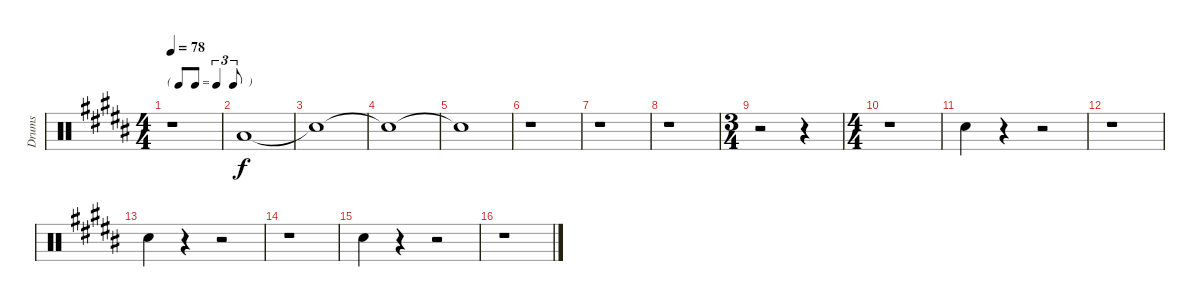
\track ("Drums" "Drums") {instrument percussion}
\staff {score}
\articulation defaults
\ts (4 4)
\tf triplet8th
\tempo 78
\clef neutral
\ks b
r.1{dy f} |
"Low Tom (hit)".1 |
"Snare (hit)"{t}.1 |
"Snare (hit)"{t}.1 |
"Snare (hit)"{t}.1 |
r.1 |
r.1 |
r.1 |
\ts (3 4)
r.2 r.4 |
\ts (4 4)
r.1 |
"Snare (hit) 2".4 r.4 r.2 |
r.1 |
"Snare (hit) 2".4 r.4 r.2 |
r.1 |
"Snare (hit) 2".4 r.4 r.2 |
r.1
